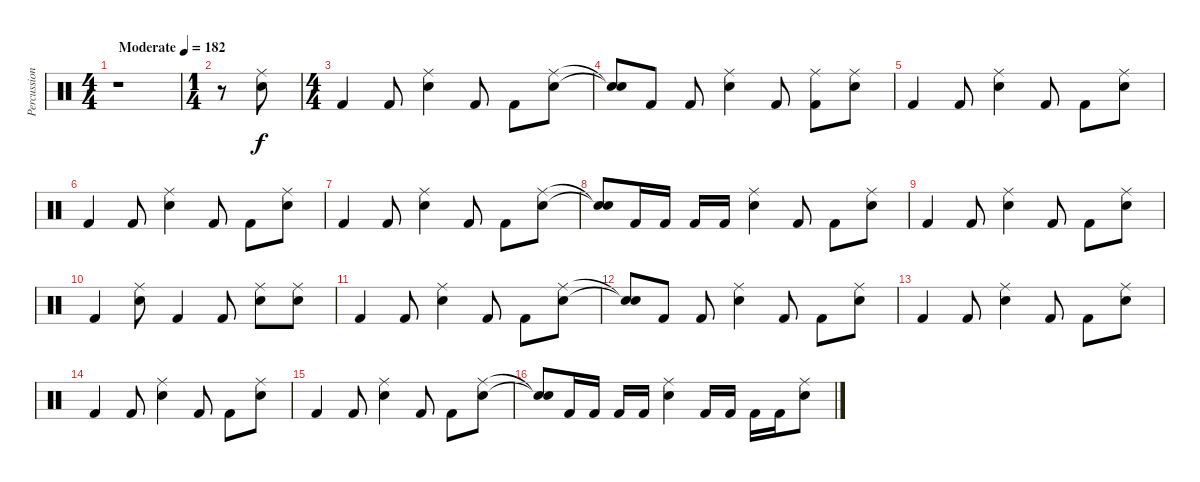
\track ("Percussion" "Percussion") {instrument percussion}
\staff {score}
\articulation defaults
\ts (4 4)
\tempo (182 "Moderate")
\clef neutral
\ks c
r.1{dy f} |
\ts (1 4)
r.8 ("Ride (middle)" "Snare (hit) 2").8 |
\ts (4 4)
"Kick (hit) 2".4 "Kick (hit) 2".8 ("Ride (middle)" "Snare (hit) 2").4 "Kick (hit) 2".8 "Kick (hit) 2".8 ("Ride (middle)" "Snare (hit) 2").8 |
("Snare (hit)"{t} "Snare (hit)"{t}).8 "Kick (hit) 2".8 "Kick (hit) 2".8 ("Ride (middle)" "Snare (hit) 2").4 "Kick (hit) 2".8 ("Ride (middle)" "Kick (hit) 2").8 ("Ride (middle)" "Snare (hit) 2").8 |
"Kick (hit) 2".4 "Kick (hit) 2".8 ("Ride (middle)" "Snare (hit) 2").4 "Kick (hit) 2".8 "Kick (hit) 2".8 ("Ride (middle)" "Snare (hit) 2").8 |
"Kick (hit) 2".4 "Kick (hit) 2".8 ("Ride (middle)" "Snare (hit) 2").4 "Kick (hit) 2".8 "Kick (hit) 2".8 ("Ride (middle)" "Snare (hit) 2").8 |
"Kick (hit) 2".4 "Kick (hit) 2".8 ("Ride (middle)" "Snare (hit) 2").4 "Kick (hit) 2".8 "Kick (hit) 2".8 ("Ride (middle)" "Snare (hit) 2").8 |
("Snare (hit)"{t} "Snare (hit)"{t}).8 "Kick (hit) 2".16 "Kick (hit) 2".16 "Kick (hit) 2".16 "Kick (hit) 2".16 ("Ride (middle)" "Snare (hit) 2").4 "Kick (hit) 2".8 "Kick (hit) 2".8 ("Ride (middle)" "Snare (hit) 2").8 |
"Kick (hit) 2".4 "Kick (hit) 2".8 ("Ride (middle)" "Snare (hit) 2").4 "Kick (hit) 2".8 "Kick (hit) 2".8 ("Ride (middle)" "Snare (hit) 2").8 |
"Kick (hit) 2".4 ("Ride (middle)" "Snare (hit) 2").8 "Kick (hit) 2".4 "Kick (hit) 2".8 ("Ride (middle)" "Snare (hit) 2").8 ("Ride (middle)" "Snare (hit) 2").8 |
"Kick (hit) 2".4 "Kick (hit) 2".8 ("Ride (middle)" "Snare (hit) 2").4 "Kick (hit) 2".8 "Kick (hit) 2".8 ("Ride (middle)" "Snare (hit) 2").8 |
("Snare (hit)"{t} "Snare (hit)"{t}).8 "Kick (hit) 2".8 "Kick (hit) 2".8 ("Ride (middle)" "Snare (hit) 2").4 "Kick (hit) 2".8 "Kick (hit) 2".8 ("Ride (middle)" "Snare (hit) 2").8 |
"Kick (hit) 2".4 "Kick (hit) 2".8 ("Ride (middle)" "Snare (hit) 2").4 "Kick (hit) 2".8 "Kick (hit) 2".8 ("Ride (middle)" "Snare (hit) 2").8 |
"Kick (hit) 2".4 "Kick (hit) 2".8 ("Ride (middle)" "Snare (hit) 2").4 "Kick (hit) 2".8 "Kick (hit) 2".8 ("Ride (middle)" "Snare (hit) 2").8 |
"Kick (hit) 2".4 "Kick (hit) 2".8 ("Ride (middle)" "Snare (hit) 2").4 "Kick (hit) 2".8 "Kick (hit) 2".8 ("Ride (middle)" "Snare (hit) 2").8 |
("Snare (hit)"{t} "Snare (hit)"{t}).8 "Kick (hit) 2".16 "Kick (hit) 2".16 "Kick (hit) 2".16 "Kick (hit) 2".16 ("Ride (middle)" "Snare (hit) 2").4 "Kick (hit) 2".16 "Kick (hit) 2".16 "Kick (hit) 2".16 "Kick (hit) 2".16 ("Ride (middle)" "Snare (hit) 2").8
